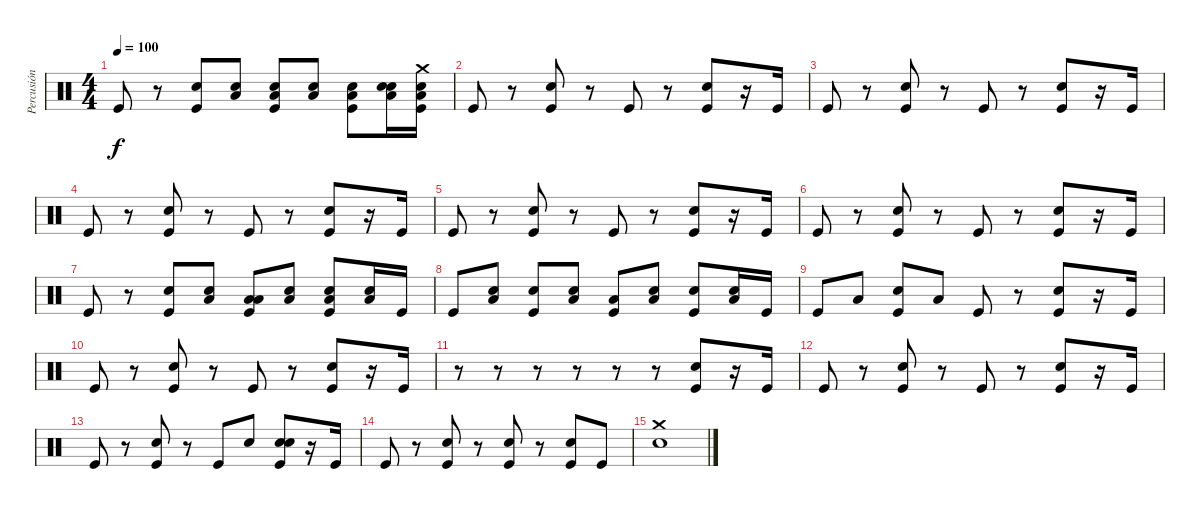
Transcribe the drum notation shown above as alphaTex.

\track ("Percusión" "Percusión") {instrument percussion}
\staff {score}
\articulation defaults
\ts (4 4)
\tempo 100
\clef neutral
\ks c "Kick (hit)".8{dy f}
r.8 ("Kick (hit)" "Electric Snare (hit)").8 ("Low Floor Tom (hit)" "Electric Snare (hit)").8 ("Kick (hit)" "Low Floor Tom (hit)" "Electric Snare (hit)").8 ("Low Floor Tom (hit)" "Electric Snare (hit)").8 ("Kick (hit)" "Electric Snare (hit)" "Low Floor Tom (hit)").8 ("Electric Snare (hit)" "Low Floor Tom (hit)" "Snare (hit) 2").16 ("Kick (hit)" "Low Floor Tom (hit)" "Electric Snare (hit)" "Crash medium (hit)").16 |
"Kick (hit)".8 r.8 ("Kick (hit)" "Electric Snare (hit)").8 r.8 "Kick (hit)".8 r.8 ("Kick (hit)" "Electric Snare (hit)").8 r.16 "Kick (hit)".16 |
"Kick (hit)".8 r.8 ("Kick (hit)" "Electric Snare (hit)").8 r.8 "Kick (hit)".8 r.8 ("Kick (hit)" "Electric Snare (hit)").8 r.16 "Kick (hit)".16 |
"Kick (hit)".8 r.8 ("Kick (hit)" "Electric Snare (hit)").8 r.8 "Kick (hit)".8 r.8 ("Kick (hit)" "Electric Snare (hit)").8 r.16 "Kick (hit)".16 |
"Kick (hit)".8 r.8 ("Kick (hit)" "Electric Snare (hit)").8 r.8 "Kick (hit)".8 r.8 ("Kick (hit)" "Electric Snare (hit)").8 r.16 "Kick (hit)".16 |
"Kick (hit)".8 r.8 ("Kick (hit)" "Electric Snare (hit)").8 r.8 "Kick (hit)".8 r.8 ("Kick (hit)" "Electric Snare (hit)").8 r.16 "Kick (hit)".16 |
"Kick (hit)".8 r.8 ("Kick (hit)" "Electric Snare (hit)").8 ("Electric Snare (hit)" "Low Floor Tom (hit)").8 ("Kick (hit)" "Low Floor Tom (hit)" "Low Floor Tom (hit)").8 ("Electric Snare (hit)" "Low Floor Tom (hit)").8 ("Kick (hit)" "Electric Snare (hit)" "Low Floor Tom (hit)").8 ("Electric Snare (hit)" "Low Floor Tom (hit)").16 "Kick (hit)".16 |
"Kick (hit)".8 ("Low Floor Tom (hit)" "Electric Snare (hit)").8 ("Kick (hit)" "Electric Snare (hit)").8 ("Low Floor Tom (hit)" "Electric Snare (hit)").8 ("Kick (hit)" "Low Floor Tom (hit)").8 ("Low Floor Tom (hit)" "Electric Snare (hit)").8 ("Kick (hit)" "Electric Snare (hit)").8 ("Low Floor Tom (hit)" "Electric Snare (hit)").16 "Kick (hit)".16 |
"Kick (hit)".8 "Low Floor Tom (hit)".8 ("Kick (hit)" "Electric Snare (hit)").8 "Low Floor Tom (hit)".8 "Kick (hit)".8 r.8 ("Kick (hit)" "Electric Snare (hit)").8 r.16 "Kick (hit)".16 |
"Kick (hit)".8 r.8 ("Kick (hit)" "Electric Snare (hit)").8 r.8 "Kick (hit)".8 r.8 ("Kick (hit)" "Electric Snare (hit)").8 r.16 "Kick (hit)".16 |
r.8 r.8 r.8 r.8 r.8 r.8 ("Kick (hit)" "Electric Snare (hit)").8 r.16 "Kick (hit)".16 |
"Kick (hit)".8 r.8 ("Kick (hit)" "Electric Snare (hit)").8 r.8 "Kick (hit)".8 r.8 ("Kick (hit)" "Electric Snare (hit)").8 r.16 "Kick (hit)".16 |
"Kick (hit)".8 r.8 ("Kick (hit)" "Electric Snare (hit)").8 r.8 "Kick (hit)".8 "Snare (hit) 2".8 ("Kick (hit)" "Electric Snare (hit)" "Snare (hit) 2").8 r.16 "Kick (hit)".16 |
"Kick (hit)".8 r.8 ("Kick (hit)" "Electric Snare (hit)").8 r.8 ("Kick (hit)" "Electric Snare (hit)").8 r.8 ("Kick (hit)" "Electric Snare (hit)").8 "Kick (hit)".8 |
("Crash medium (hit)" "Electric Snare (hit)").1
